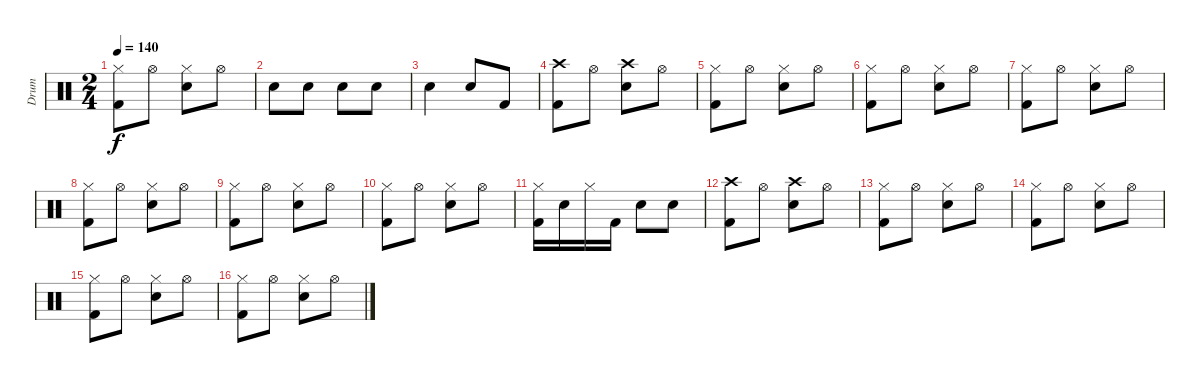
\track ("Drum" "Drum") {instrument percussion}
\staff {score}
\articulation defaults
\ts (2 4)
\tempo 140
\clef neutral
\ks c
("Kick (hit) 2" "Hi-Hat (closed)").8{dy f} "Hi-Hat (open)".8 ("Hi-Hat (closed)" "Electric Snare (hit)").8 "Hi-Hat (open)".8 |
"Electric Snare (hit)".8 "Electric Snare (hit)".8 "Electric Snare (hit)".8 "Electric Snare (hit)".8 |
"Electric Snare (hit)".4 "Electric Snare (hit)".8 "Kick (hit) 2".8 |
("Crash high (hit)" "Kick (hit) 2").8 "Hi-Hat (open)".8 ("Crash high (hit)" "Electric Snare (hit)").8 "Hi-Hat (open)".8 |
("Kick (hit) 2" "Hi-Hat (closed)").8 "Hi-Hat (open)".8 ("Hi-Hat (closed)" "Electric Snare (hit)").8 "Hi-Hat (open)".8 |
("Kick (hit) 2" "Hi-Hat (closed)").8 "Hi-Hat (open)".8 ("Hi-Hat (closed)" "Electric Snare (hit)").8 "Hi-Hat (open)".8 |
("Kick (hit) 2" "Hi-Hat (closed)").8 "Hi-Hat (open)".8 ("Hi-Hat (closed)" "Electric Snare (hit)").8 "Hi-Hat (open)".8 |
("Kick (hit) 2" "Hi-Hat (closed)").8 "Hi-Hat (open)".8 ("Hi-Hat (closed)" "Electric Snare (hit)").8 "Hi-Hat (open)".8 |
("Kick (hit) 2" "Hi-Hat (closed)").8 "Hi-Hat (open)".8 ("Hi-Hat (closed)" "Electric Snare (hit)").8 "Hi-Hat (open)".8 |
("Kick (hit) 2" "Hi-Hat (closed)").8 "Hi-Hat (open)".8 ("Hi-Hat (closed)" "Electric Snare (hit)").8 "Hi-Hat (open)".8 |
("Hi-Hat (closed)" "Kick (hit) 2").16 "Electric Snare (hit)".16 "Hi-Hat (closed)".16 "Kick (hit) 2".16 "Electric Snare (hit)".8 "Electric Snare (hit)".8 |
("Crash high (hit)" "Kick (hit) 2").8 "Hi-Hat (open)".8 ("Crash high (hit)" "Electric Snare (hit)").8 "Hi-Hat (open)".8 |
("Kick (hit) 2" "Hi-Hat (closed)").8 "Hi-Hat (open)".8 ("Hi-Hat (closed)" "Electric Snare (hit)").8 "Hi-Hat (open)".8 |
("Kick (hit) 2" "Hi-Hat (closed)").8 "Hi-Hat (open)".8 ("Hi-Hat (closed)" "Electric Snare (hit)").8 "Hi-Hat (open)".8 |
("Kick (hit) 2" "Hi-Hat (closed)").8 "Hi-Hat (open)".8 ("Hi-Hat (closed)" "Electric Snare (hit)").8 "Hi-Hat (open)".8 |
("Kick (hit) 2" "Hi-Hat (closed)").8 "Hi-Hat (open)".8 ("Hi-Hat (closed)" "Electric Snare (hit)").8 "Hi-Hat (open)".8
